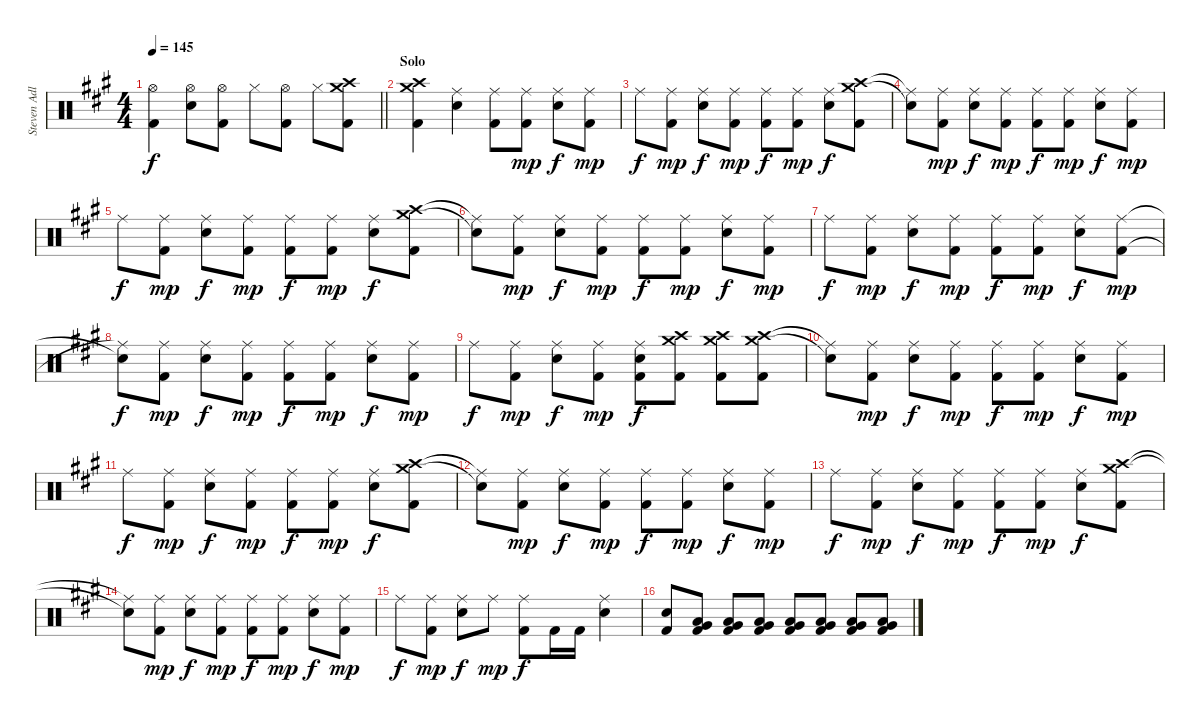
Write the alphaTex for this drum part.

\track ("Steven Adler - Drums" "Steven Adl") {instrument percussion}
\staff {score}
\articulation defaults
\ts (4 4)
\tempo 145
\clef neutral
\barLineRight lightlight
\ks a
("Hi-Hat (open)" "Kick (hit) 2").4{dy f} ("Hi-Hat (open)" "Snare (hit) 2").8 ("Hi-Hat (open)" "Kick (hit) 2").8 "Hi-Hat (closed)".8 ("Hi-Hat (open)" "Kick (hit) 2").8 "Hi-Hat (closed)".8 ("Crash medium (hit)" "Crash high (hit)" "Kick (hit) 2").8 |
\section ("" "Solo")
("Crash medium (hit)" "Crash high (hit)" "Kick (hit) 2").4 ("Ride (middle)" "Snare (hit) 2").4 ("Ride (middle)" "Kick (hit) 2").8 ("Ride (middle)" "Kick (hit) 2").8{dy mp} ("Ride (middle)" "Snare (hit) 2").8{dy f} ("Ride (middle)" "Kick (hit) 2").8{dy mp} |
"Ride (middle)".8{dy f} ("Ride (middle)" "Kick (hit) 2").8{dy mp} ("Ride (middle)" "Snare (hit) 2").8{dy f} ("Ride (middle)" "Kick (hit) 2").8{dy mp} ("Ride (middle)" "Kick (hit) 2").8{dy f} ("Ride (middle)" "Kick (hit) 2").8{dy mp} ("Ride (middle)" "Snare (hit) 2").8{dy f} ("Crash medium (hit)" "Crash high (hit)" "Kick (hit) 2").8 |
("Snare (hit)"{t} "Ride (middle)"{t}).8 ("Ride (middle)" "Kick (hit) 2").8{dy mp} ("Ride (middle)" "Snare (hit) 2").8{dy f} ("Ride (middle)" "Kick (hit) 2").8{dy mp} ("Ride (middle)" "Kick (hit) 2").8{dy f} ("Ride (middle)" "Kick (hit) 2").8{dy mp} ("Ride (middle)" "Snare (hit) 2").8{dy f} ("Ride (middle)" "Kick (hit) 2").8{dy mp} |
"Ride (middle)".8{dy f} ("Ride (middle)" "Kick (hit) 2").8{dy mp} ("Ride (middle)" "Snare (hit) 2").8{dy f} ("Ride (middle)" "Kick (hit) 2").8{dy mp} ("Ride (middle)" "Kick (hit) 2").8{dy f} ("Ride (middle)" "Kick (hit) 2").8{dy mp} ("Ride (middle)" "Snare (hit) 2").8{dy f} ("Crash medium (hit)" "Crash high (hit)" "Kick (hit) 2").8 |
("Snare (hit)"{t} "Ride (middle)"{t}).8 ("Ride (middle)" "Kick (hit) 2").8{dy mp} ("Ride (middle)" "Snare (hit) 2").8{dy f} ("Ride (middle)" "Kick (hit) 2").8{dy mp} ("Ride (middle)" "Kick (hit) 2").8{dy f} ("Ride (middle)" "Kick (hit) 2").8{dy mp} ("Ride (middle)" "Snare (hit) 2").8{dy f} ("Ride (middle)" "Kick (hit) 2").8{dy mp} |
"Ride (middle)".8{dy f} ("Ride (middle)" "Kick (hit) 2").8{dy mp} ("Ride (middle)" "Snare (hit) 2").8{dy f} ("Ride (middle)" "Kick (hit) 2").8{dy mp} ("Ride (middle)" "Kick (hit) 2").8{dy f} ("Ride (middle)" "Kick (hit) 2").8{dy mp} ("Ride (middle)" "Snare (hit) 2").8{dy f} ("Ride (middle)" "Kick (hit) 2").8{dy mp} |
("Snare (hit)"{t} "Ride (middle)"{t}).8{dy f} ("Ride (middle)" "Kick (hit) 2").8{dy mp} ("Ride (middle)" "Snare (hit) 2").8{dy f} ("Ride (middle)" "Kick (hit) 2").8{dy mp} ("Ride (middle)" "Kick (hit) 2").8{dy f} ("Ride (middle)" "Kick (hit) 2").8{dy mp} ("Ride (middle)" "Snare (hit) 2").8{dy f} ("Ride (middle)" "Kick (hit) 2").8{dy mp} |
"Ride (middle)".8{dy f} ("Ride (middle)" "Kick (hit) 2").8{dy mp} ("Ride (middle)" "Snare (hit) 2").8{dy f} ("Ride (middle)" "Kick (hit) 2").8{dy mp} ("Ride (middle)" "Snare (hit) 2" "Kick (hit) 2").8{dy f} ("Crash medium (hit)" "Crash high (hit)" "Kick (hit) 2").8 ("Crash medium (hit)" "Crash high (hit)" "Kick (hit) 2").8 ("Crash medium (hit)" "Crash high (hit)" "Kick (hit) 2").8 |
("Snare (hit)"{t} "Ride (middle)"{t}).8 ("Ride (middle)" "Kick (hit) 2").8{dy mp} ("Ride (middle)" "Snare (hit) 2").8{dy f} ("Ride (middle)" "Kick (hit) 2").8{dy mp} ("Ride (middle)" "Kick (hit) 2").8{dy f} ("Ride (middle)" "Kick (hit) 2").8{dy mp} ("Ride (middle)" "Snare (hit) 2").8{dy f} ("Ride (middle)" "Kick (hit) 2").8{dy mp} |
"Ride (middle)".8{dy f} ("Ride (middle)" "Kick (hit) 2").8{dy mp} ("Ride (middle)" "Snare (hit) 2").8{dy f} ("Ride (middle)" "Kick (hit) 2").8{dy mp} ("Ride (middle)" "Kick (hit) 2").8{dy f} ("Ride (middle)" "Kick (hit) 2").8{dy mp} ("Ride (middle)" "Snare (hit) 2").8{dy f} ("Crash medium (hit)" "Crash high (hit)" "Kick (hit) 2").8 |
("Snare (hit)"{t} "Ride (middle)"{t}).8 ("Ride (middle)" "Kick (hit) 2").8{dy mp} ("Ride (middle)" "Snare (hit) 2").8{dy f} ("Ride (middle)" "Kick (hit) 2").8{dy mp} ("Ride (middle)" "Kick (hit) 2").8{dy f} ("Ride (middle)" "Kick (hit) 2").8{dy mp} ("Ride (middle)" "Snare (hit) 2").8{dy f} ("Ride (middle)" "Kick (hit) 2").8{dy mp} |
"Ride (middle)".8{dy f} ("Ride (middle)" "Kick (hit) 2").8{dy mp} ("Ride (middle)" "Snare (hit) 2").8{dy f} ("Ride (middle)" "Kick (hit) 2").8{dy mp} ("Ride (middle)" "Kick (hit) 2").8{dy f} ("Ride (middle)" "Kick (hit) 2").8{dy mp} ("Ride (middle)" "Snare (hit) 2").8{dy f} ("Crash medium (hit)" "Crash high (hit)" "Kick (hit) 2").8 |
("Snare (hit)"{t} "Ride (middle)"{t}).8 ("Ride (middle)" "Kick (hit) 2").8{dy mp} ("Ride (middle)" "Snare (hit) 2").8{dy f} ("Ride (middle)" "Kick (hit) 2").8{dy mp} ("Ride (middle)" "Kick (hit) 2").8{dy f} ("Ride (middle)" "Kick (hit) 2").8{dy mp} ("Ride (middle)" "Snare (hit) 2").8{dy f} ("Ride (middle)" "Kick (hit) 2").8{dy mp} |
"Ride (middle)".8{dy f} ("Ride (middle)" "Kick (hit) 2").8{dy mp} ("Ride (middle)" "Snare (hit) 2").8{dy f} "Ride (middle)".8{dy mp} ("Ride (middle)" "Kick (hit) 2").8{dy f} "Kick (hit) 2".16 "Kick (hit) 2".16 ("Ride (middle)" "Snare (hit) 2").4 |
("Snare (hit) 2" "Kick (hit) 2").8 ("Very Low Tom (hit)" "Low Tom (hit)" "Kick (hit) 2").8 ("Very Low Tom (hit)" "Low Tom (hit)" "Kick (hit) 2").8 ("Very Low Tom (hit)" "Low Tom (hit)" "Kick (hit) 2").8 ("Very Low Tom (hit)" "Low Tom (hit)" "Kick (hit) 2").8 ("Very Low Tom (hit)" "Low Tom (hit)" "Kick (hit) 2").8 ("Very Low Tom (hit)" "Low Tom (hit)" "Kick (hit) 2").8 ("Very Low Tom (hit)" "Low Tom (hit)" "Kick (hit) 2").8
